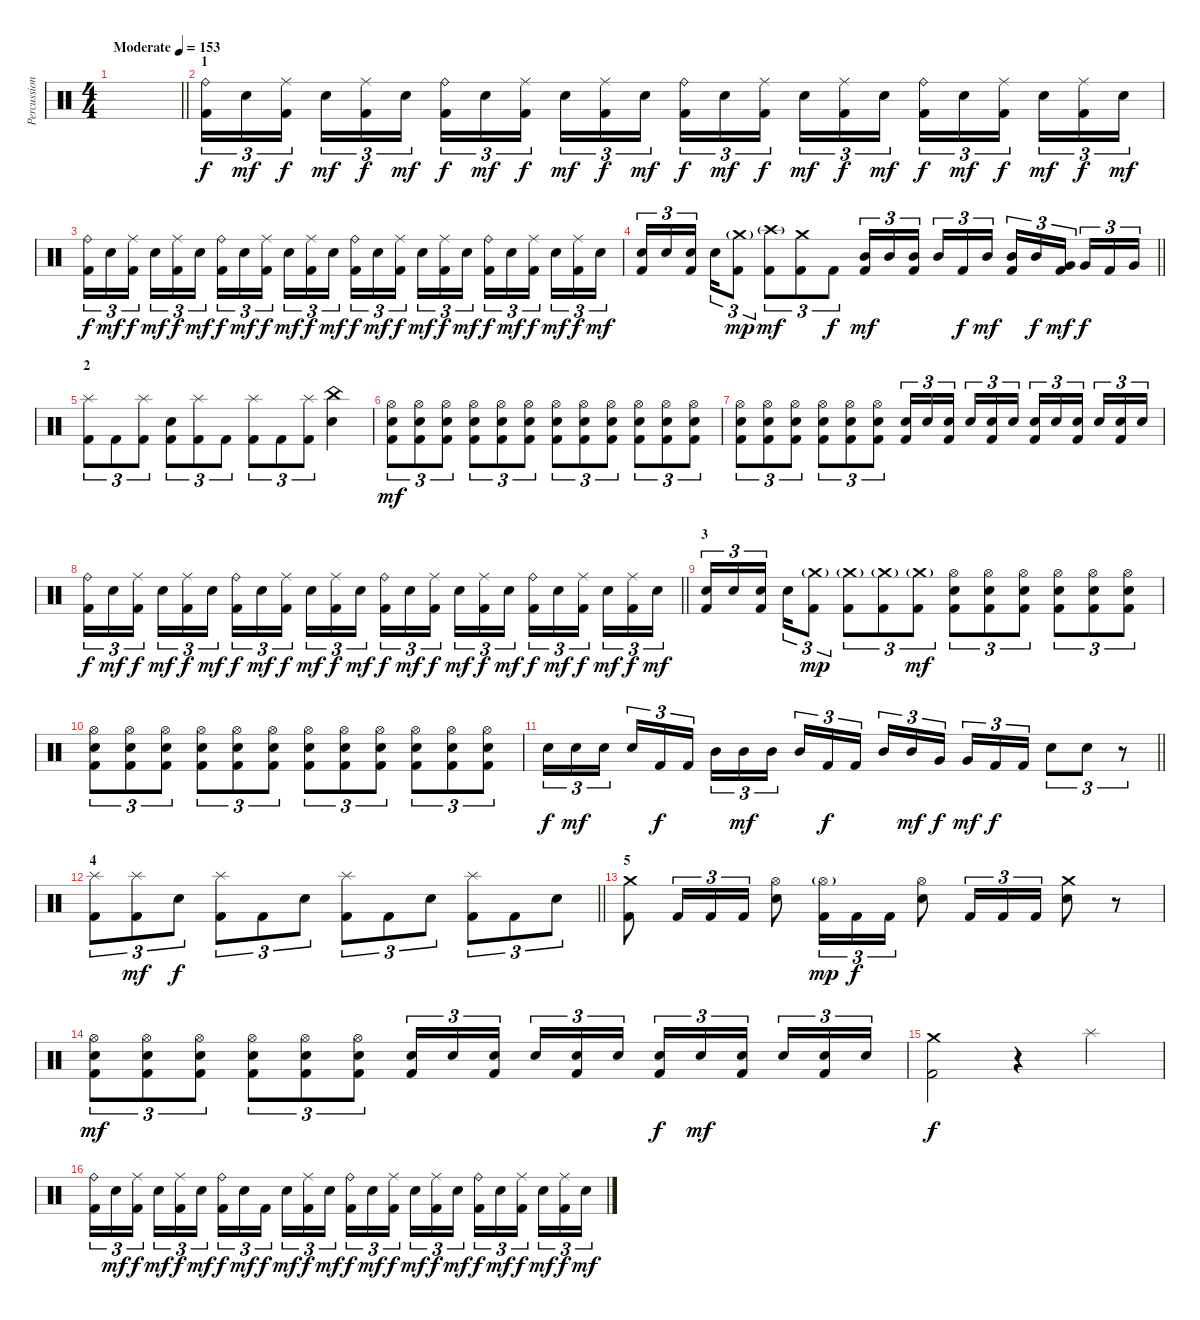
\track ("Percussion" "Percussion") {instrument percussion}
\staff {score}
\articulation defaults
\ts (4 4)
\tempo (153 "Moderate")
\clef neutral
\barLineRight lightlight
\ks c
|
\section ("" "1")
("Ride (bell)" "Kick (hit) 2").16{tu (3 2)} "Snare (hit) 2".16{tu (3 2) dy mf} ("Ride (middle)" "Kick (hit) 2").16{tu (3 2) dy f beam splitsecondary} "Snare (hit) 2".16{tu (3 2) dy mf} ("Ride (middle)" "Kick (hit) 2").16{tu (3 2) dy f} "Snare (hit) 2".16{tu (3 2) dy mf} ("Ride (bell)" "Kick (hit) 2").16{tu (3 2) dy f} "Snare (hit) 2".16{tu (3 2) dy mf} ("Ride (middle)" "Kick (hit) 2").16{tu (3 2) dy f beam splitsecondary} "Snare (hit) 2".16{tu (3 2) dy mf} ("Ride (middle)" "Kick (hit) 2").16{tu (3 2) dy f} "Snare (hit) 2".16{tu (3 2) dy mf} ("Ride (bell)" "Kick (hit) 2").16{tu (3 2) dy f} "Snare (hit) 2".16{tu (3 2) dy mf} ("Ride (middle)" "Kick (hit) 2").16{tu (3 2) dy f beam splitsecondary} "Snare (hit) 2".16{tu (3 2) dy mf} ("Ride (middle)" "Kick (hit) 2").16{tu (3 2) dy f} "Snare (hit) 2".16{tu (3 2) dy mf} ("Ride (bell)" "Kick (hit) 2").16{tu (3 2) dy f} "Snare (hit) 2".16{tu (3 2) dy mf} ("Ride (middle)" "Kick (hit) 2").16{tu (3 2) dy f beam splitsecondary} "Snare (hit) 2".16{tu (3 2) dy mf} ("Ride (middle)" "Kick (hit) 2").16{tu (3 2) dy f} "Snare (hit) 2".16{tu (3 2) dy mf} |
("Ride (bell)" "Kick (hit) 2").16{tu (3 2) dy f} "Snare (hit) 2".16{tu (3 2) dy mf} ("Ride (middle)" "Kick (hit) 2").16{tu (3 2) dy f beam splitsecondary} "Snare (hit) 2".16{tu (3 2) dy mf} ("Ride (middle)" "Kick (hit) 2").16{tu (3 2) dy f} "Snare (hit) 2".16{tu (3 2) dy mf} ("Ride (bell)" "Kick (hit) 2").16{tu (3 2) dy f} "Snare (hit) 2".16{tu (3 2) dy mf} ("Ride (middle)" "Kick (hit) 2").16{tu (3 2) dy f beam splitsecondary} "Snare (hit) 2".16{tu (3 2) dy mf} ("Ride (middle)" "Kick (hit) 2").16{tu (3 2) dy f} "Snare (hit) 2".16{tu (3 2) dy mf} ("Ride (bell)" "Kick (hit) 2").16{tu (3 2) dy f} "Snare (hit) 2".16{tu (3 2) dy mf} ("Ride (middle)" "Kick (hit) 2").16{tu (3 2) dy f beam splitsecondary} "Snare (hit) 2".16{tu (3 2) dy mf} ("Ride (middle)" "Kick (hit) 2").16{tu (3 2) dy f} "Snare (hit) 2".16{tu (3 2) dy mf} ("Ride (bell)" "Kick (hit) 2").16{tu (3 2) dy f} "Snare (hit) 2".16{tu (3 2) dy mf} ("Ride (middle)" "Kick (hit) 2").16{tu (3 2) dy f beam splitsecondary} "Snare (hit) 2".16{tu (3 2) dy mf} ("Ride (middle)" "Kick (hit) 2").16{tu (3 2) dy f} "Snare (hit) 2".16{tu (3 2) dy mf} |
\barLineRight lightlight
("Snare (hit) 2" "Kick (hit) 2").16{tu (3 2)} "Snare (hit) 2".16{tu (3 2)} ("Snare (hit) 2" "Kick (hit) 2").16{tu (3 2) beam splitsecondary} "Snare (hit) 2".16{tu (3 2)} ("Crash medium (hit)"{g} "Kick (hit) 2").8{tu (3 2) dy mp} ("Crash high (hit)"{g} "Kick (hit) 2").8{tu (3 2) dy mf} ("Crash medium (hit)" "Kick (hit) 2").8{tu (3 2)} "Kick (hit) 2".8{tu (3 2) dy f} ("Mid Tom (hit)" "Kick (hit) 2").16{tu (3 2) dy mf} "Mid Tom (hit)".16{tu (3 2)} ("Mid Tom (hit)" "Kick (hit) 2").16{tu (3 2) beam splitsecondary} "Mid Tom (hit)".16{tu (3 2)} "Kick (hit) 2".16{tu (3 2) dy f} "Mid Tom (hit)".16{tu (3 2) dy mf} ("Mid Tom (hit)" "Kick (hit) 2").16{tu (3 2)} "Mid Tom (hit)".16{tu (3 2) dy f} ("Very Low Tom (hit)" "Kick (hit) 2").16{tu (3 2) dy mf beam splitsecondary} "Very Low Tom (hit)".16{tu (3 2) dy f} "Kick (hit) 2".16{tu (3 2)} "Very Low Tom (hit)".16{tu (3 2)} |
\section ("" "2")
("Splash (hit)" "Kick (hit) 2").8{tu (3 2)} "Kick (hit) 2".8{tu (3 2)} ("Splash (hit)" "Kick (hit) 2").8{tu (3 2)} ("Snare (hit) 2" "Kick (hit) 2").8{tu (3 2)} ("Splash (hit)" "Kick (hit) 2").8{tu (3 2)} "Kick (hit) 2".8{tu (3 2)} ("Splash (hit)" "Kick (hit) 2").8{tu (3 2)} "Kick (hit) 2".8{tu (3 2)} ("Splash (hit)" "Kick (hit) 2").8{tu (3 2)} ("China (hit)" "Snare (hit) 2").4 |
("Hi-Hat (open)" "Snare (hit) 2" "Kick (hit) 2").8{tu (3 2) dy mf} ("Hi-Hat (open)" "Snare (hit) 2" "Kick (hit) 2").8{tu (3 2)} ("Hi-Hat (open)" "Snare (hit) 2" "Kick (hit) 2").8{tu (3 2)} ("Hi-Hat (open)" "Snare (hit) 2" "Kick (hit) 2").8{tu (3 2)} ("Hi-Hat (open)" "Snare (hit) 2" "Kick (hit) 2").8{tu (3 2)} ("Hi-Hat (open)" "Snare (hit) 2" "Kick (hit) 2").8{tu (3 2)} ("Hi-Hat (open)" "Snare (hit) 2" "Kick (hit) 2").8{tu (3 2)} ("Hi-Hat (open)" "Snare (hit) 2" "Kick (hit) 2").8{tu (3 2)} ("Hi-Hat (open)" "Snare (hit) 2" "Kick (hit) 2").8{tu (3 2)} ("Hi-Hat (open)" "Snare (hit) 2" "Kick (hit) 2").8{tu (3 2)} ("Hi-Hat (open)" "Snare (hit) 2" "Kick (hit) 2").8{tu (3 2)} ("Hi-Hat (open)" "Snare (hit) 2" "Kick (hit) 2").8{tu (3 2)} |
("Hi-Hat (open)" "Snare (hit) 2" "Kick (hit) 2").8{tu (3 2)} ("Hi-Hat (open)" "Snare (hit) 2" "Kick (hit) 2").8{tu (3 2)} ("Hi-Hat (open)" "Snare (hit) 2" "Kick (hit) 2").8{tu (3 2)} ("Hi-Hat (open)" "Snare (hit) 2" "Kick (hit) 2").8{tu (3 2)} ("Hi-Hat (open)" "Snare (hit) 2" "Kick (hit) 2").8{tu (3 2)} ("Hi-Hat (open)" "Snare (hit) 2" "Kick (hit) 2").8{tu (3 2)} ("Snare (hit) 2" "Kick (hit) 2").16{tu (3 2)} "Snare (hit) 2".16{tu (3 2)} ("Snare (hit) 2" "Kick (hit) 2").16{tu (3 2) beam splitsecondary} "Snare (hit) 2".16{tu (3 2)} ("Snare (hit) 2" "Kick (hit) 2").16{tu (3 2)} "Snare (hit) 2".16{tu (3 2)} ("Snare (hit) 2" "Kick (hit) 2").16{tu (3 2)} "Snare (hit) 2".16{tu (3 2)} ("Snare (hit) 2" "Kick (hit) 2").16{tu (3 2) beam splitsecondary} "Snare (hit) 2".16{tu (3 2)} ("Snare (hit) 2" "Kick (hit) 2").16{tu (3 2)} "Snare (hit) 2".16{tu (3 2)} |
\barLineRight lightlight
("Ride (bell)" "Kick (hit) 2").16{tu (3 2) dy f} "Snare (hit) 2".16{tu (3 2) dy mf} ("Ride (middle)" "Kick (hit) 2").16{tu (3 2) dy f beam splitsecondary} "Snare (hit) 2".16{tu (3 2) dy mf} ("Ride (middle)" "Kick (hit) 2").16{tu (3 2) dy f} "Snare (hit) 2".16{tu (3 2) dy mf} ("Ride (bell)" "Kick (hit) 2").16{tu (3 2) dy f} "Snare (hit) 2".16{tu (3 2) dy mf} ("Ride (middle)" "Kick (hit) 2").16{tu (3 2) dy f beam splitsecondary} "Snare (hit) 2".16{tu (3 2) dy mf} ("Ride (middle)" "Kick (hit) 2").16{tu (3 2) dy f} "Snare (hit) 2".16{tu (3 2) dy mf} ("Ride (bell)" "Kick (hit) 2").16{tu (3 2) dy f} "Snare (hit) 2".16{tu (3 2) dy mf} ("Ride (middle)" "Kick (hit) 2").16{tu (3 2) dy f beam splitsecondary} "Snare (hit) 2".16{tu (3 2) dy mf} ("Ride (middle)" "Kick (hit) 2").16{tu (3 2) dy f} "Snare (hit) 2".16{tu (3 2) dy mf} ("Ride (bell)" "Kick (hit) 2").16{tu (3 2) dy f} "Snare (hit) 2".16{tu (3 2) dy mf} ("Ride (middle)" "Kick (hit) 2").16{tu (3 2) dy f beam splitsecondary} "Snare (hit) 2".16{tu (3 2) dy mf} ("Ride (middle)" "Kick (hit) 2").16{tu (3 2) dy f} "Snare (hit) 2".16{tu (3 2) dy mf} |
\section ("" "3")
("Snare (hit) 2" "Kick (hit) 2").16{tu (3 2)} "Snare (hit) 2".16{tu (3 2)} ("Snare (hit) 2" "Kick (hit) 2").16{tu (3 2) beam splitsecondary} "Snare (hit) 2".16{tu (3 2)} ("Crash medium (hit)"{g} "Kick (hit) 2").8{tu (3 2) dy mp} ("Crash medium (hit)"{g} "Kick (hit) 2").8{tu (3 2)} ("Crash medium (hit)"{g} "Kick (hit) 2").8{tu (3 2)} ("Crash medium (hit)"{g} "Kick (hit) 2").8{tu (3 2) dy mf} ("Hi-Hat (open)" "Snare (hit) 2" "Kick (hit) 2").8{tu (3 2)} ("Hi-Hat (open)" "Snare (hit) 2" "Kick (hit) 2").8{tu (3 2)} ("Hi-Hat (open)" "Snare (hit) 2" "Kick (hit) 2").8{tu (3 2)} ("Hi-Hat (open)" "Snare (hit) 2" "Kick (hit) 2").8{tu (3 2)} ("Hi-Hat (open)" "Snare (hit) 2" "Kick (hit) 2").8{tu (3 2)} ("Hi-Hat (open)" "Snare (hit) 2" "Kick (hit) 2").8{tu (3 2)} |
("Hi-Hat (open)" "Snare (hit) 2" "Kick (hit) 2").8{tu (3 2)} ("Hi-Hat (open)" "Snare (hit) 2" "Kick (hit) 2").8{tu (3 2)} ("Hi-Hat (open)" "Snare (hit) 2" "Kick (hit) 2").8{tu (3 2)} ("Hi-Hat (open)" "Snare (hit) 2" "Kick (hit) 2").8{tu (3 2)} ("Hi-Hat (open)" "Snare (hit) 2" "Kick (hit) 2").8{tu (3 2)} ("Hi-Hat (open)" "Snare (hit) 2" "Kick (hit) 2").8{tu (3 2)} ("Hi-Hat (open)" "Snare (hit) 2" "Kick (hit) 2").8{tu (3 2)} ("Hi-Hat (open)" "Snare (hit) 2" "Kick (hit) 2").8{tu (3 2)} ("Hi-Hat (open)" "Snare (hit) 2" "Kick (hit) 2").8{tu (3 2)} ("Hi-Hat (open)" "Snare (hit) 2" "Kick (hit) 2").8{tu (3 2)} ("Hi-Hat (open)" "Snare (hit) 2" "Kick (hit) 2").8{tu (3 2)} ("Hi-Hat (open)" "Snare (hit) 2" "Kick (hit) 2").8{tu (3 2)} |
\barLineRight lightlight "Snare (hit) 2".16{tu (3 2) dy f} "Snare (hit) 2".16{tu (3 2) dy mf} "Snare (hit) 2".16{tu (3 2) beam splitsecondary} "Snare (hit) 2".16{tu (3 2)} "Kick (hit) 2".16{tu (3 2) dy f} "Kick (hit) 2".16{tu (3 2)} "Mid Tom (hit)".16{tu (3 2)} "Mid Tom (hit)".16{tu (3 2) dy mf} "Mid Tom (hit)".16{tu (3 2) beam splitsecondary} "Mid Tom (hit)".16{tu (3 2)} "Kick (hit) 2".16{tu (3 2) dy f} "Kick (hit) 2".16{tu (3 2)} "Mid Tom (hit)".16{tu (3 2)} "Mid Tom (hit)".16{tu (3 2) dy mf} "Very Low Tom (hit)".16{tu (3 2) dy f beam splitsecondary} "Very Low Tom (hit)".16{tu (3 2) dy mf} "Kick (hit) 2".16{tu (3 2) dy f} "Kick (hit) 2".16{tu (3 2)} "Snare (hit) 2".8{tu (3 2)} "Snare (hit) 2".8{tu (3 2)}
r.8{tu (3 2)} |
\section ("" "4")
\barLineRight lightlight
("Splash (hit)" "Kick (hit) 2").8{tu (3 2)} ("Splash (hit)" "Kick (hit) 2").8{tu (3 2) dy mf} "Snare (hit) 2".8{tu (3 2) dy f} ("Splash (hit)" "Kick (hit) 2").8{tu (3 2)} "Kick (hit) 2".8{tu (3 2)} "Snare (hit) 2".8{tu (3 2)} ("Splash (hit)" "Kick (hit) 2").8{tu (3 2)} "Kick (hit) 2".8{tu (3 2)} "Snare (hit) 2".8{tu (3 2)} ("Splash (hit)" "Kick (hit) 2").8{tu (3 2)} "Kick (hit) 2".8{tu (3 2)} "Snare (hit) 2".8{tu (3 2)} |
\section ("" "5")
("Crash medium (hit)" "Kick (hit) 2").8 "Kick (hit) 2".16{tu (3 2)} "Kick (hit) 2".16{tu (3 2)} "Kick (hit) 2".16{tu (3 2)} ("Hi-Hat (open)" "Snare (hit) 2").8 ("Hi-Hat (open)"{g} "Kick (hit) 2").16{tu (3 2) dy mp} "Kick (hit) 2".16{tu (3 2) dy f} "Kick (hit) 2".16{tu (3 2)} ("Hi-Hat (open)" "Snare (hit) 2").8 "Kick (hit) 2".16{tu (3 2)} "Kick (hit) 2".16{tu (3 2)} "Kick (hit) 2".16{tu (3 2)} ("Crash medium (hit)" "Snare (hit) 2").8 r.8 |
("Hi-Hat (open)" "Snare (hit) 2" "Kick (hit) 2").8{tu (3 2) dy mf} ("Hi-Hat (open)" "Snare (hit) 2" "Kick (hit) 2").8{tu (3 2)} ("Hi-Hat (open)" "Snare (hit) 2" "Kick (hit) 2").8{tu (3 2)} ("Hi-Hat (open)" "Snare (hit) 2" "Kick (hit) 2").8{tu (3 2)} ("Hi-Hat (open)" "Snare (hit) 2" "Kick (hit) 2").8{tu (3 2)} ("Hi-Hat (open)" "Snare (hit) 2" "Kick (hit) 2").8{tu (3 2)} ("Snare (hit) 2" "Kick (hit) 2").16{tu (3 2)} "Snare (hit) 2".16{tu (3 2)} ("Snare (hit) 2" "Kick (hit) 2").16{tu (3 2) beam splitsecondary} "Snare (hit) 2".16{tu (3 2)} ("Snare (hit) 2" "Kick (hit) 2").16{tu (3 2)} "Snare (hit) 2".16{tu (3 2)} ("Snare (hit) 2" "Kick (hit) 2").16{tu (3 2) dy f} "Snare (hit) 2".16{tu (3 2) dy mf} ("Snare (hit) 2" "Kick (hit) 2").16{tu (3 2) beam splitsecondary} "Snare (hit) 2".16{tu (3 2)} ("Snare (hit) 2" "Kick (hit) 2").16{tu (3 2)} "Snare (hit) 2".16{tu (3 2)} |
("Crash medium (hit)" "Kick (hit) 2").2{dy f} r.4 "Splash (hit)".4 |
("Ride (bell)" "Kick (hit) 2").16{tu (3 2)} "Snare (hit) 2".16{tu (3 2) dy mf} ("Ride (middle)" "Kick (hit) 2").16{tu (3 2) dy f beam splitsecondary} "Snare (hit) 2".16{tu (3 2) dy mf} ("Ride (middle)" "Kick (hit) 2").16{tu (3 2) dy f} "Snare (hit) 2".16{tu (3 2) dy mf} ("Ride (bell)" "Kick (hit) 2").16{tu (3 2) dy f} "Snare (hit) 2".16{tu (3 2) dy mf} "Kick (hit) 2".16{tu (3 2) dy f beam splitsecondary} "Snare (hit) 2".16{tu (3 2) dy mf} ("Ride (middle)" "Kick (hit) 2").16{tu (3 2) dy f} "Snare (hit) 2".16{tu (3 2) dy mf} ("Ride (bell)" "Kick (hit) 2").16{tu (3 2) dy f} "Snare (hit) 2".16{tu (3 2) dy mf} ("Ride (middle)" "Kick (hit) 2").16{tu (3 2) dy f beam splitsecondary} "Snare (hit) 2".16{tu (3 2) dy mf} ("Ride (middle)" "Kick (hit) 2").16{tu (3 2) dy f} "Snare (hit) 2".16{tu (3 2) dy mf} ("Ride (bell)" "Kick (hit) 2").16{tu (3 2) dy f} "Snare (hit) 2".16{tu (3 2) dy mf} ("Ride (middle)" "Kick (hit) 2").16{tu (3 2) dy f beam splitsecondary} "Snare (hit) 2".16{tu (3 2) dy mf} ("Ride (middle)" "Kick (hit) 2").16{tu (3 2) dy f} "Snare (hit) 2".16{tu (3 2) dy mf}
